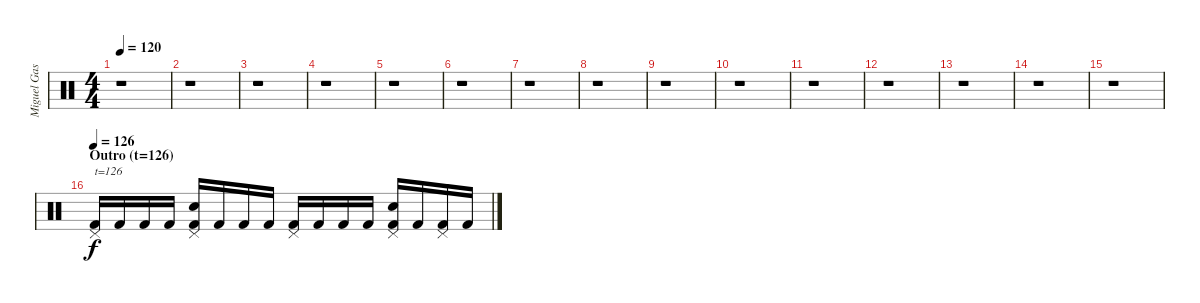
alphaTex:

\track ("Miguel Gaspar - Drums" "Miguel Gas") {instrument percussion}
\staff {score}
\articulation defaults
\ts (4 4)
\tempo 120
\clef neutral
\ks c
r.1{dy f} |
r.1 |
r.1 |
r.1 |
r.1 |
r.1 |
r.1 |
\section ("" "")
r.1 |
r.1 |
r.1 |
r.1 |
r.1 |
r.1 |
r.1 |
r.1 |
\section ("" "Outro (t=126)")
\tempo 126
("Pedal Hi-Hat (hit)" "Kick (hit) 2").16{txt "t=126" volume 16 balance 8} "Kick (hit) 2".16 "Kick (hit) 2".16 "Kick (hit) 2".16 ("Pedal Hi-Hat (hit)" "Electric Snare (hit)" "Kick (hit) 2").16 "Kick (hit) 2".16 "Kick (hit) 2".16 "Kick (hit) 2".16 ("Pedal Hi-Hat (hit)" "Kick (hit) 2").16 "Kick (hit) 2".16 "Kick (hit) 2".16 "Kick (hit) 2".16 ("Pedal Hi-Hat (hit)" "Electric Snare (hit)" "Kick (hit) 2").16 "Kick (hit) 2".16 ("Pedal Hi-Hat (hit)" "Kick (hit) 2").16 "Kick (hit) 2".16
